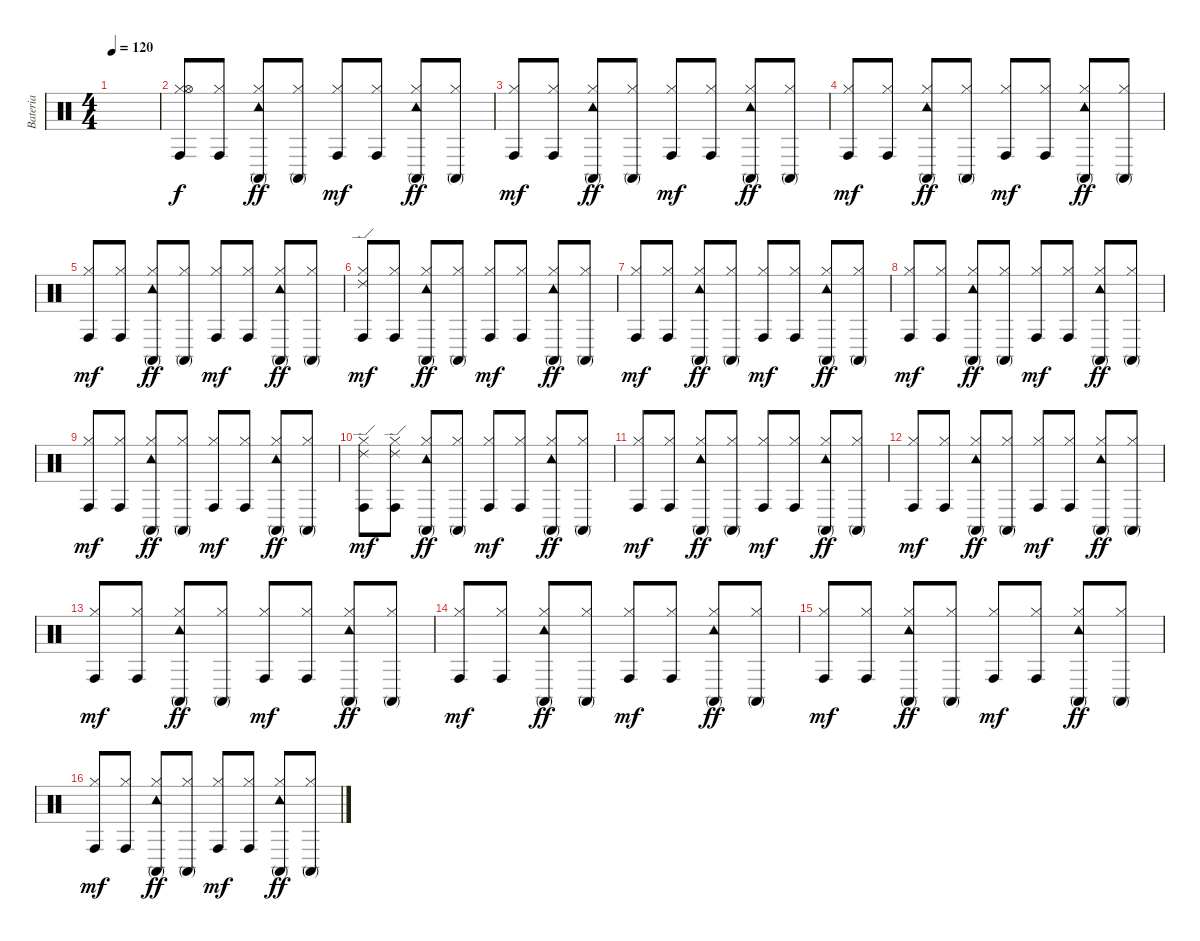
\track ("Bateria" "Bateria") {instrument percussion}
\staff {score}
\articulation defaults
\ts (4 4)
\tempo 120
\clef neutral
\ks c
|
("Hi-Hat (closed)" "Hi-Hat (open)" "Conga high (hit)").8 ("Hi-Hat (closed)" "Conga high (hit)").8 ("Hi-Hat (closed)" "Tambourine (hit)" "Conga high (mute)").8{dy ff} ("Hi-Hat (closed)" "Conga high (mute)").8 ("Hi-Hat (closed)" "Conga high (hit)").8{dy mf} ("Hi-Hat (closed)" "Conga high (hit)").8 ("Hi-Hat (closed)" "Tambourine (hit)" "Conga high (mute)").8{dy ff} ("Hi-Hat (closed)" "Conga high (mute)").8 |
("Hi-Hat (closed)" "Conga high (hit)").8{dy mf} ("Hi-Hat (closed)" "Conga high (hit)").8 ("Hi-Hat (closed)" "Tambourine (hit)" "Conga high (mute)").8{dy ff} ("Hi-Hat (closed)" "Conga high (mute)").8 ("Hi-Hat (closed)" "Conga high (hit)").8{dy mf} ("Hi-Hat (closed)" "Conga high (hit)").8 ("Hi-Hat (closed)" "Tambourine (hit)" "Conga high (mute)").8{dy ff} ("Hi-Hat (closed)" "Conga high (mute)").8 |
("Hi-Hat (closed)" "Conga high (hit)").8{dy mf} ("Hi-Hat (closed)" "Conga high (hit)").8 ("Hi-Hat (closed)" "Tambourine (hit)" "Conga high (mute)").8{dy ff} ("Hi-Hat (closed)" "Conga high (mute)").8 ("Hi-Hat (closed)" "Conga high (hit)").8{dy mf} ("Hi-Hat (closed)" "Conga high (hit)").8 ("Hi-Hat (closed)" "Tambourine (hit)" "Conga high (mute)").8{dy ff} ("Hi-Hat (closed)" "Conga high (mute)").8 |
("Hi-Hat (closed)" "Conga high (hit)").8{dy mf} ("Hi-Hat (closed)" "Conga high (hit)").8 ("Hi-Hat (closed)" "Tambourine (hit)" "Conga high (mute)").8{dy ff} ("Hi-Hat (closed)" "Conga high (mute)").8 ("Hi-Hat (closed)" "Conga high (hit)").8{dy mf} ("Hi-Hat (closed)" "Conga high (hit)").8 ("Hi-Hat (closed)" "Tambourine (hit)" "Conga high (mute)").8{dy ff} ("Hi-Hat (closed)" "Conga high (mute)").8 |
("Hi-Hat (closed)" "Ride (edge) 2" "Conga high (hit)").8{dy mf} ("Hi-Hat (closed)" "Conga high (hit)").8 ("Hi-Hat (closed)" "Tambourine (hit)" "Conga high (mute)").8{dy ff} ("Hi-Hat (closed)" "Conga high (mute)").8 ("Hi-Hat (closed)" "Conga high (hit)").8{dy mf} ("Hi-Hat (closed)" "Conga high (hit)").8 ("Hi-Hat (closed)" "Tambourine (hit)" "Conga high (mute)").8{dy ff} ("Hi-Hat (closed)" "Conga high (mute)").8 |
("Hi-Hat (closed)" "Conga high (hit)").8{dy mf} ("Hi-Hat (closed)" "Conga high (hit)").8 ("Hi-Hat (closed)" "Tambourine (hit)" "Conga high (mute)").8{dy ff} ("Hi-Hat (closed)" "Conga high (mute)").8 ("Hi-Hat (closed)" "Conga high (hit)").8{dy mf} ("Hi-Hat (closed)" "Conga high (hit)").8 ("Hi-Hat (closed)" "Tambourine (hit)" "Conga high (mute)").8{dy ff} ("Hi-Hat (closed)" "Conga high (mute)").8 |
("Hi-Hat (closed)" "Conga high (hit)").8{dy mf} ("Hi-Hat (closed)" "Conga high (hit)").8 ("Hi-Hat (closed)" "Tambourine (hit)" "Conga high (mute)").8{dy ff} ("Hi-Hat (closed)" "Conga high (mute)").8 ("Hi-Hat (closed)" "Conga high (hit)").8{dy mf} ("Hi-Hat (closed)" "Conga high (hit)").8 ("Hi-Hat (closed)" "Tambourine (hit)" "Conga high (mute)").8{dy ff} ("Hi-Hat (closed)" "Conga high (mute)").8 |
("Hi-Hat (closed)" "Conga high (hit)").8{dy mf} ("Hi-Hat (closed)" "Conga high (hit)").8 ("Hi-Hat (closed)" "Tambourine (hit)" "Conga high (mute)").8{dy ff} ("Hi-Hat (closed)" "Conga high (mute)").8 ("Hi-Hat (closed)" "Conga high (hit)").8{dy mf} ("Hi-Hat (closed)" "Conga high (hit)").8 ("Hi-Hat (closed)" "Tambourine (hit)" "Conga high (mute)").8{dy ff} ("Hi-Hat (closed)" "Conga high (mute)").8 |
("Hi-Hat (closed)" "Ride (edge) 2" "Conga high (hit)").8{dy mf} ("Hi-Hat (closed)" "Ride (edge) 2" "Conga high (hit)").8 ("Hi-Hat (closed)" "Tambourine (hit)" "Conga high (mute)").8{dy ff} ("Hi-Hat (closed)" "Conga high (mute)").8 ("Hi-Hat (closed)" "Conga high (hit)").8{dy mf} ("Hi-Hat (closed)" "Conga high (hit)").8 ("Hi-Hat (closed)" "Tambourine (hit)" "Conga high (mute)").8{dy ff} ("Hi-Hat (closed)" "Conga high (mute)").8 |
("Hi-Hat (closed)" "Conga high (hit)").8{dy mf} ("Hi-Hat (closed)" "Conga high (hit)").8 ("Hi-Hat (closed)" "Tambourine (hit)" "Conga high (mute)").8{dy ff} ("Hi-Hat (closed)" "Conga high (mute)").8 ("Hi-Hat (closed)" "Conga high (hit)").8{dy mf} ("Hi-Hat (closed)" "Conga high (hit)").8 ("Hi-Hat (closed)" "Tambourine (hit)" "Conga high (mute)").8{dy ff} ("Hi-Hat (closed)" "Conga high (mute)").8 |
("Hi-Hat (closed)" "Conga high (hit)").8{dy mf} ("Hi-Hat (closed)" "Conga high (hit)").8 ("Hi-Hat (closed)" "Tambourine (hit)" "Conga high (mute)").8{dy ff} ("Hi-Hat (closed)" "Conga high (mute)").8 ("Hi-Hat (closed)" "Conga high (hit)").8{dy mf} ("Hi-Hat (closed)" "Conga high (hit)").8 ("Hi-Hat (closed)" "Tambourine (hit)" "Conga high (mute)").8{dy ff} ("Hi-Hat (closed)" "Conga high (mute)").8 |
("Hi-Hat (closed)" "Conga high (hit)").8{dy mf} ("Hi-Hat (closed)" "Conga high (hit)").8 ("Hi-Hat (closed)" "Tambourine (hit)" "Conga high (mute)").8{dy ff} ("Hi-Hat (closed)" "Conga high (mute)").8 ("Hi-Hat (closed)" "Conga high (hit)").8{dy mf} ("Hi-Hat (closed)" "Conga high (hit)").8 ("Hi-Hat (closed)" "Tambourine (hit)" "Conga high (mute)").8{dy ff} ("Hi-Hat (closed)" "Conga high (mute)").8 |
("Hi-Hat (closed)" "Conga high (hit)").8{dy mf} ("Hi-Hat (closed)" "Conga high (hit)").8 ("Hi-Hat (closed)" "Tambourine (hit)" "Conga high (mute)").8{dy ff} ("Hi-Hat (closed)" "Conga high (mute)").8 ("Hi-Hat (closed)" "Conga high (hit)").8{dy mf} ("Hi-Hat (closed)" "Conga high (hit)").8 ("Hi-Hat (closed)" "Tambourine (hit)" "Conga high (mute)").8{dy ff} ("Hi-Hat (closed)" "Conga high (mute)").8 |
("Hi-Hat (closed)" "Conga high (hit)").8{dy mf} ("Hi-Hat (closed)" "Conga high (hit)").8 ("Hi-Hat (closed)" "Tambourine (hit)" "Conga high (mute)").8{dy ff} ("Hi-Hat (closed)" "Conga high (mute)").8 ("Hi-Hat (closed)" "Conga high (hit)").8{dy mf} ("Hi-Hat (closed)" "Conga high (hit)").8 ("Hi-Hat (closed)" "Tambourine (hit)" "Conga high (mute)").8{dy ff} ("Hi-Hat (closed)" "Conga high (mute)").8 |
("Hi-Hat (closed)" "Conga high (hit)").8{dy mf} ("Hi-Hat (closed)" "Conga high (hit)").8 ("Hi-Hat (closed)" "Tambourine (hit)" "Conga high (mute)").8{dy ff} ("Hi-Hat (closed)" "Conga high (mute)").8 ("Hi-Hat (closed)" "Conga high (hit)").8{dy mf} ("Hi-Hat (closed)" "Conga high (hit)").8 ("Hi-Hat (closed)" "Tambourine (hit)" "Conga high (mute)").8{dy ff} ("Hi-Hat (closed)" "Conga high (mute)").8
